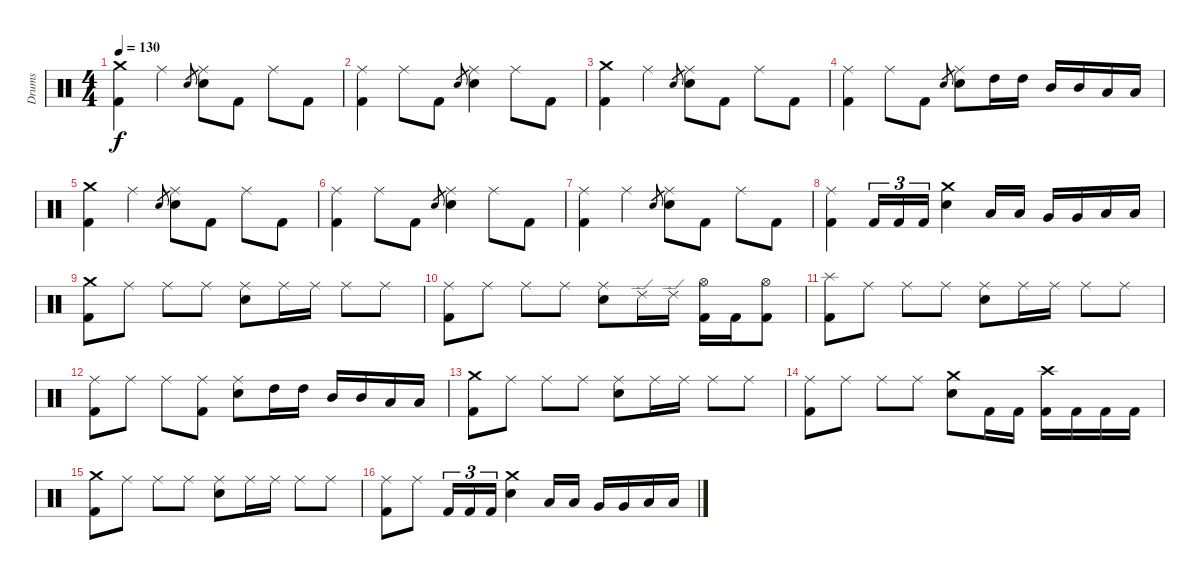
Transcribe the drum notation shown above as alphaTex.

\track ("Drums" "Drums") {instrument percussion}
\staff {score}
\articulation defaults
\ts (4 4)
\tempo 130
\clef neutral
\ks c
("Kick (hit) 2" "Crash medium (hit)").4{dy f volume 10} "Ride (middle)".4 "Electric Snare (hit)".8{gr} ("Electric Snare (hit)" "Ride (middle)").8 "Kick (hit) 2".8 "Ride (middle)".8 "Kick (hit) 2".8 |
("Kick (hit) 2" "Ride (middle)").4 "Ride (middle)".8 "Kick (hit) 2".8 "Electric Snare (hit)".8{gr} ("Electric Snare (hit)" "Ride (middle)").4 "Ride (middle)".8 "Kick (hit) 2".8 |
("Kick (hit) 2" "Crash medium (hit)").4 "Ride (middle)".4 "Electric Snare (hit)".8{gr} ("Electric Snare (hit)" "Ride (middle)").8 "Kick (hit) 2".8 "Ride (middle)".8 "Kick (hit) 2".8 |
("Kick (hit) 2" "Ride (middle)").4 "Ride (middle)".8 "Kick (hit) 2".8 "Electric Snare (hit)".8{gr} ("Electric Snare (hit)" "Ride (middle)").8 "High Tom (hit)".16 "High Tom (hit)".16 "Mid Tom (hit)".16 "Mid Tom (hit)".16 "Low Tom (hit)".16 "Low Tom (hit)".16 |
("Kick (hit) 2" "Crash medium (hit)").4 "Ride (middle)".4 "Electric Snare (hit)".8{gr} ("Electric Snare (hit)" "Ride (middle)").8 "Kick (hit) 2".8 "Ride (middle)".8 "Kick (hit) 2".8 |
("Kick (hit) 2" "Ride (middle)").4 "Ride (middle)".8 "Kick (hit) 2".8 "Electric Snare (hit)".8{gr} ("Electric Snare (hit)" "Ride (middle)").4 "Ride (middle)".8 "Kick (hit) 2".8 |
("Kick (hit) 2" "Ride (middle)").4 "Ride (middle)".4 "Electric Snare (hit)".8{gr} ("Electric Snare (hit)" "Ride (middle)").8 "Kick (hit) 2".8 "Ride (middle)".8 "Kick (hit) 2".8 |
("Kick (hit) 2" "Ride (middle)").4 "Kick (hit) 2".16{tu (3 2)} "Kick (hit) 2".16{tu (3 2)} "Kick (hit) 2".16{tu (3 2)} ("Electric Snare (hit)" "Crash medium (hit)").4 "Low Tom (hit)".16 "Low Tom (hit)".16 "Very Low Tom (hit)".16 "Very Low Tom (hit)".16 "Low Floor Tom (hit)".16 "Low Floor Tom (hit)".16 |
("Kick (hit) 2" "Crash medium (hit)").8{volume 16} "Ride (middle)".8 "Ride (middle)".8 "Ride (middle)".8 ("Electric Snare (hit)" "Ride (middle)").8 "Ride (middle)".16 "Ride (middle)".16 "Ride (middle)".8 "Ride (middle)".8 |
("Kick (hit) 2" "Ride (middle)").8 "Ride (middle)".8 "Ride (middle)".8 "Ride (middle)".8 ("Electric Snare (hit)" "Ride (middle)").8 "Ride (edge) 2".16 "Ride (edge) 2".16 ("Kick (hit) 2" "Hi-Hat (open)").16 "Kick (hit) 2".16 ("Kick (hit) 2" "Hi-Hat (open)").8 |
("Kick (hit) 2" "Splash (hit)").8 "Ride (middle)".8 "Ride (middle)".8 "Ride (middle)".8 ("Electric Snare (hit)" "Ride (middle)").8 "Ride (middle)".16 "Ride (middle)".16 "Ride (middle)".8 "Ride (middle)".8 |
("Kick (hit) 2" "Ride (middle)").8 "Ride (middle)".8 "Ride (middle)".8 ("Kick (hit) 2" "Ride (middle)").8 ("Electric Snare (hit)" "Ride (middle)").8 "High Tom (hit)".16 "High Tom (hit)".16 "Mid Tom (hit)".16 "Mid Tom (hit)".16 "Low Tom (hit)".16 "Low Tom (hit)".16 |
("Kick (hit) 2" "Crash medium (hit)").8 "Ride (middle)".8 "Ride (middle)".8 "Ride (middle)".8 ("Electric Snare (hit)" "Ride (middle)").8 "Ride (middle)".16 "Ride (middle)".16 "Ride (middle)".8 "Ride (middle)".8 |
("Kick (hit) 2" "Ride (middle)").8 "Ride (middle)".8 "Ride (middle)".8 "Ride (middle)".8 ("Electric Snare (hit)" "Crash medium (hit)").8 "Kick (hit) 2".16 "Kick (hit) 2".16 ("Kick (hit) 2" "Crash high (hit)").16 "Kick (hit) 2".16 "Kick (hit) 2".16 "Kick (hit) 2".16 |
("Kick (hit) 2" "Crash medium (hit)").8 "Ride (middle)".8 "Ride (middle)".8 "Ride (middle)".8 ("Electric Snare (hit)" "Ride (middle)").8 "Ride (middle)".16 "Ride (middle)".16 "Ride (middle)".8 "Ride (middle)".8 |
("Kick (hit) 2" "Ride (middle)").8 "Ride (middle)".8 "Kick (hit) 2".16{tu (3 2)} "Kick (hit) 2".16{tu (3 2)} "Kick (hit) 2".16{tu (3 2)} ("Electric Snare (hit)" "Crash medium (hit)").4 "Low Tom (hit)".16 "Low Tom (hit)".16 "Very Low Tom (hit)".16 "Very Low Tom (hit)".16 "Low Floor Tom (hit)".16 "Low Floor Tom (hit)".16
